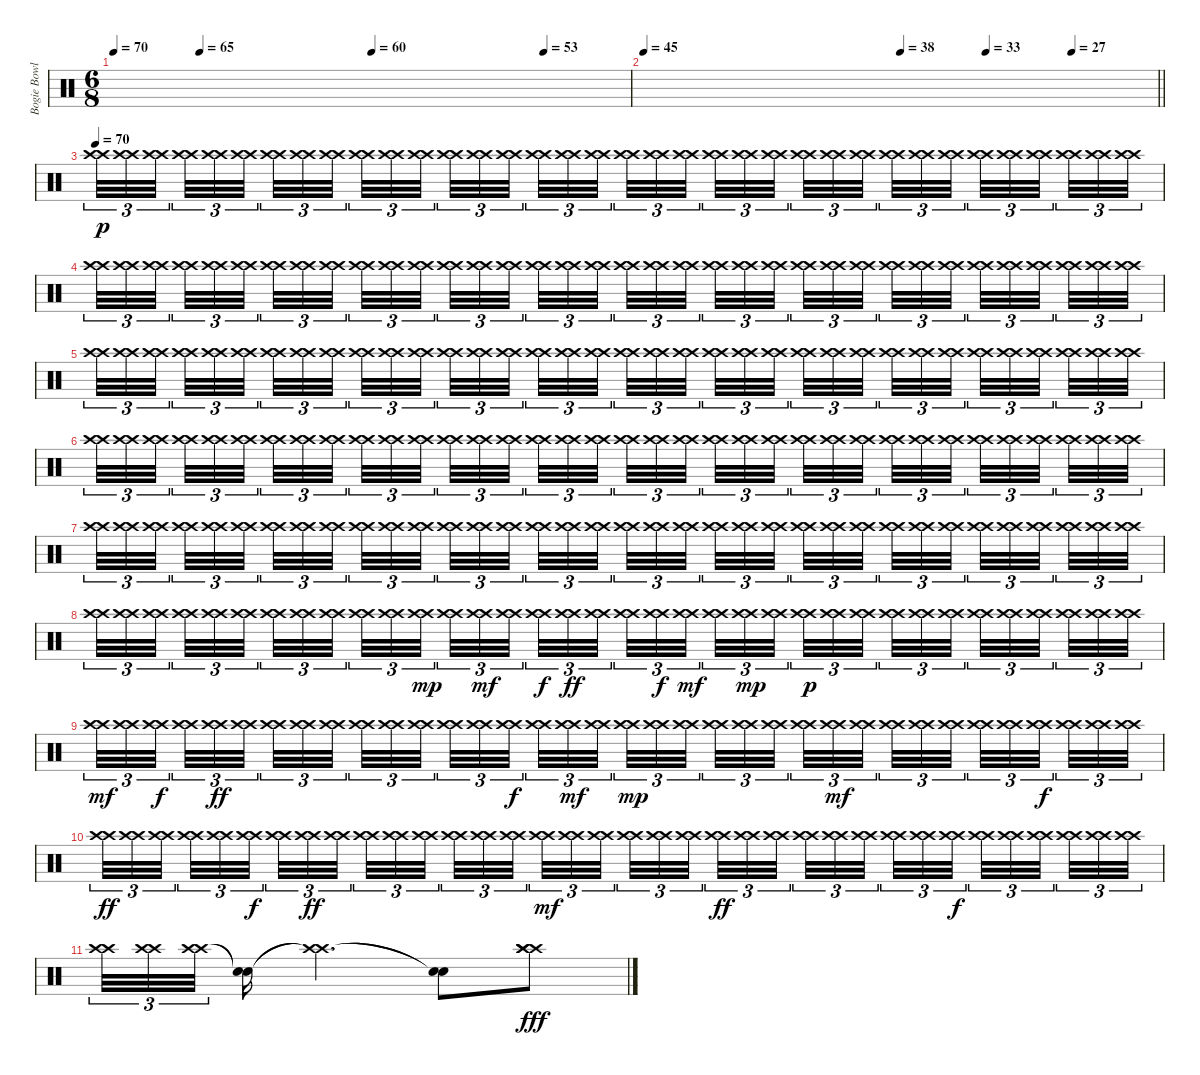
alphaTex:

\track ("Bogie Bowles" "Bogie Bowl") {instrument percussion}
\staff {score}
\articulation defaults
\ts (6 8)
\tempo 70
\tempo (65 0.16666666666666666)
\tempo (60 0.5)
\tempo (53 0.8333333333333334)
\clef neutral
\ks c
|
\tempo 45
\tempo (38 0.5)
\tempo (33 0.6666666666666666)
\tempo (27 0.8333333333333334)
\barLineRight lightlight
|
\tempo 70
("Crash high (hit)" "Crash high (hit)").32{tu (3 2) dy p} ("Crash high (hit)" "Crash high (hit)").32{tu (3 2)} ("Crash high (hit)" "Crash high (hit)").32{tu (3 2) beam splitsecondary} ("Crash high (hit)" "Crash high (hit)").32{tu (3 2)} ("Crash high (hit)" "Crash high (hit)").32{tu (3 2)} ("Crash high (hit)" "Crash high (hit)").32{tu (3 2) beam splitsecondary} ("Crash high (hit)" "Crash high (hit)").32{tu (3 2)} ("Crash high (hit)" "Crash high (hit)").32{tu (3 2)} ("Crash high (hit)" "Crash high (hit)").32{tu (3 2) beam splitsecondary} ("Crash high (hit)" "Crash high (hit)").32{tu (3 2)} ("Crash high (hit)" "Crash high (hit)").32{tu (3 2)} ("Crash high (hit)" "Crash high (hit)").32{tu (3 2) beam splitsecondary} ("Crash high (hit)" "Crash high (hit)").32{tu (3 2)} ("Crash high (hit)" "Crash high (hit)").32{tu (3 2)} ("Crash high (hit)" "Crash high (hit)").32{tu (3 2) beam splitsecondary} ("Crash high (hit)" "Crash high (hit)").32{tu (3 2)} ("Crash high (hit)" "Crash high (hit)").32{tu (3 2)} ("Crash high (hit)" "Crash high (hit)").32{tu (3 2)} ("Crash high (hit)" "Crash high (hit)").32{tu (3 2)} ("Crash high (hit)" "Crash high (hit)").32{tu (3 2)} ("Crash high (hit)" "Crash high (hit)").32{tu (3 2) beam splitsecondary} ("Crash high (hit)" "Crash high (hit)").32{tu (3 2)} ("Crash high (hit)" "Crash high (hit)").32{tu (3 2)} ("Crash high (hit)" "Crash high (hit)").32{tu (3 2) beam splitsecondary} ("Crash high (hit)" "Crash high (hit)").32{tu (3 2)} ("Crash high (hit)" "Crash high (hit)").32{tu (3 2)} ("Crash high (hit)" "Crash high (hit)").32{tu (3 2) beam splitsecondary} ("Crash high (hit)" "Crash high (hit)").32{tu (3 2)} ("Crash high (hit)" "Crash high (hit)").32{tu (3 2)} ("Crash high (hit)" "Crash high (hit)").32{tu (3 2) beam splitsecondary} ("Crash high (hit)" "Crash high (hit)").32{tu (3 2)} ("Crash high (hit)" "Crash high (hit)").32{tu (3 2)} ("Crash high (hit)" "Crash high (hit)").32{tu (3 2) beam splitsecondary} ("Crash high (hit)" "Crash high (hit)").32{tu (3 2)} ("Crash high (hit)" "Crash high (hit)").32{tu (3 2)} ("Crash high (hit)" "Crash high (hit)").32{tu (3 2)} |
("Crash high (hit)" "Crash high (hit)").32{tu (3 2)} ("Crash high (hit)" "Crash high (hit)").32{tu (3 2)} ("Crash high (hit)" "Crash high (hit)").32{tu (3 2) beam splitsecondary} ("Crash high (hit)" "Crash high (hit)").32{tu (3 2)} ("Crash high (hit)" "Crash high (hit)").32{tu (3 2)} ("Crash high (hit)" "Crash high (hit)").32{tu (3 2) beam splitsecondary} ("Crash high (hit)" "Crash high (hit)").32{tu (3 2)} ("Crash high (hit)" "Crash high (hit)").32{tu (3 2)} ("Crash high (hit)" "Crash high (hit)").32{tu (3 2) beam splitsecondary} ("Crash high (hit)" "Crash high (hit)").32{tu (3 2)} ("Crash high (hit)" "Crash high (hit)").32{tu (3 2)} ("Crash high (hit)" "Crash high (hit)").32{tu (3 2) beam splitsecondary} ("Crash high (hit)" "Crash high (hit)").32{tu (3 2)} ("Crash high (hit)" "Crash high (hit)").32{tu (3 2)} ("Crash high (hit)" "Crash high (hit)").32{tu (3 2) beam splitsecondary} ("Crash high (hit)" "Crash high (hit)").32{tu (3 2)} ("Crash high (hit)" "Crash high (hit)").32{tu (3 2)} ("Crash high (hit)" "Crash high (hit)").32{tu (3 2)} ("Crash high (hit)" "Crash high (hit)").32{tu (3 2)} ("Crash high (hit)" "Crash high (hit)").32{tu (3 2)} ("Crash high (hit)" "Crash high (hit)").32{tu (3 2) beam splitsecondary} ("Crash high (hit)" "Crash high (hit)").32{tu (3 2)} ("Crash high (hit)" "Crash high (hit)").32{tu (3 2)} ("Crash high (hit)" "Crash high (hit)").32{tu (3 2) beam splitsecondary} ("Crash high (hit)" "Crash high (hit)").32{tu (3 2)} ("Crash high (hit)" "Crash high (hit)").32{tu (3 2)} ("Crash high (hit)" "Crash high (hit)").32{tu (3 2) beam splitsecondary} ("Crash high (hit)" "Crash high (hit)").32{tu (3 2)} ("Crash high (hit)" "Crash high (hit)").32{tu (3 2)} ("Crash high (hit)" "Crash high (hit)").32{tu (3 2) beam splitsecondary} ("Crash high (hit)" "Crash high (hit)").32{tu (3 2)} ("Crash high (hit)" "Crash high (hit)").32{tu (3 2)} ("Crash high (hit)" "Crash high (hit)").32{tu (3 2) beam splitsecondary} ("Crash high (hit)" "Crash high (hit)").32{tu (3 2)} ("Crash high (hit)" "Crash high (hit)").32{tu (3 2)} ("Crash high (hit)" "Crash high (hit)").32{tu (3 2)} |
("Crash high (hit)" "Crash high (hit)").32{tu (3 2)} ("Crash high (hit)" "Crash high (hit)").32{tu (3 2)} ("Crash high (hit)" "Crash high (hit)").32{tu (3 2) beam splitsecondary} ("Crash high (hit)" "Crash high (hit)").32{tu (3 2)} ("Crash high (hit)" "Crash high (hit)").32{tu (3 2)} ("Crash high (hit)" "Crash high (hit)").32{tu (3 2) beam splitsecondary} ("Crash high (hit)" "Crash high (hit)").32{tu (3 2)} ("Crash high (hit)" "Crash high (hit)").32{tu (3 2)} ("Crash high (hit)" "Crash high (hit)").32{tu (3 2) beam splitsecondary} ("Crash high (hit)" "Crash high (hit)").32{tu (3 2)} ("Crash high (hit)" "Crash high (hit)").32{tu (3 2)} ("Crash high (hit)" "Crash high (hit)").32{tu (3 2) beam splitsecondary} ("Crash high (hit)" "Crash high (hit)").32{tu (3 2)} ("Crash high (hit)" "Crash high (hit)").32{tu (3 2)} ("Crash high (hit)" "Crash high (hit)").32{tu (3 2) beam splitsecondary} ("Crash high (hit)" "Crash high (hit)").32{tu (3 2)} ("Crash high (hit)" "Crash high (hit)").32{tu (3 2)} ("Crash high (hit)" "Crash high (hit)").32{tu (3 2)} ("Crash high (hit)" "Crash high (hit)").32{tu (3 2)} ("Crash high (hit)" "Crash high (hit)").32{tu (3 2)} ("Crash high (hit)" "Crash high (hit)").32{tu (3 2) beam splitsecondary} ("Crash high (hit)" "Crash high (hit)").32{tu (3 2)} ("Crash high (hit)" "Crash high (hit)").32{tu (3 2)} ("Crash high (hit)" "Crash high (hit)").32{tu (3 2) beam splitsecondary} ("Crash high (hit)" "Crash high (hit)").32{tu (3 2)} ("Crash high (hit)" "Crash high (hit)").32{tu (3 2)} ("Crash high (hit)" "Crash high (hit)").32{tu (3 2) beam splitsecondary} ("Crash high (hit)" "Crash high (hit)").32{tu (3 2)} ("Crash high (hit)" "Crash high (hit)").32{tu (3 2)} ("Crash high (hit)" "Crash high (hit)").32{tu (3 2) beam splitsecondary} ("Crash high (hit)" "Crash high (hit)").32{tu (3 2)} ("Crash high (hit)" "Crash high (hit)").32{tu (3 2)} ("Crash high (hit)" "Crash high (hit)").32{tu (3 2) beam splitsecondary} ("Crash high (hit)" "Crash high (hit)").32{tu (3 2)} ("Crash high (hit)" "Crash high (hit)").32{tu (3 2)} ("Crash high (hit)" "Crash high (hit)").32{tu (3 2)} |
("Crash high (hit)" "Crash high (hit)").32{tu (3 2)} ("Crash high (hit)" "Crash high (hit)").32{tu (3 2)} ("Crash high (hit)" "Crash high (hit)").32{tu (3 2) beam splitsecondary} ("Crash high (hit)" "Crash high (hit)").32{tu (3 2)} ("Crash high (hit)" "Crash high (hit)").32{tu (3 2)} ("Crash high (hit)" "Crash high (hit)").32{tu (3 2) beam splitsecondary} ("Crash high (hit)" "Crash high (hit)").32{tu (3 2)} ("Crash high (hit)" "Crash high (hit)").32{tu (3 2)} ("Crash high (hit)" "Crash high (hit)").32{tu (3 2) beam splitsecondary} ("Crash high (hit)" "Crash high (hit)").32{tu (3 2)} ("Crash high (hit)" "Crash high (hit)").32{tu (3 2)} ("Crash high (hit)" "Crash high (hit)").32{tu (3 2) beam splitsecondary} ("Crash high (hit)" "Crash high (hit)").32{tu (3 2)} ("Crash high (hit)" "Crash high (hit)").32{tu (3 2)} ("Crash high (hit)" "Crash high (hit)").32{tu (3 2) beam splitsecondary} ("Crash high (hit)" "Crash high (hit)").32{tu (3 2)} ("Crash high (hit)" "Crash high (hit)").32{tu (3 2)} ("Crash high (hit)" "Crash high (hit)").32{tu (3 2)} ("Crash high (hit)" "Crash high (hit)").32{tu (3 2)} ("Crash high (hit)" "Crash high (hit)").32{tu (3 2)} ("Crash high (hit)" "Crash high (hit)").32{tu (3 2) beam splitsecondary} ("Crash high (hit)" "Crash high (hit)").32{tu (3 2)} ("Crash high (hit)" "Crash high (hit)").32{tu (3 2)} ("Crash high (hit)" "Crash high (hit)").32{tu (3 2) beam splitsecondary} ("Crash high (hit)" "Crash high (hit)").32{tu (3 2)} ("Crash high (hit)" "Crash high (hit)").32{tu (3 2)} ("Crash high (hit)" "Crash high (hit)").32{tu (3 2) beam splitsecondary} ("Crash high (hit)" "Crash high (hit)").32{tu (3 2)} ("Crash high (hit)" "Crash high (hit)").32{tu (3 2)} ("Crash high (hit)" "Crash high (hit)").32{tu (3 2) beam splitsecondary} ("Crash high (hit)" "Crash high (hit)").32{tu (3 2)} ("Crash high (hit)" "Crash high (hit)").32{tu (3 2)} ("Crash high (hit)" "Crash high (hit)").32{tu (3 2) beam splitsecondary} ("Crash high (hit)" "Crash high (hit)").32{tu (3 2)} ("Crash high (hit)" "Crash high (hit)").32{tu (3 2)} ("Crash high (hit)" "Crash high (hit)").32{tu (3 2)} |
("Crash high (hit)" "Crash high (hit)").32{tu (3 2)} ("Crash high (hit)" "Crash high (hit)").32{tu (3 2)} ("Crash high (hit)" "Crash high (hit)").32{tu (3 2) beam splitsecondary} ("Crash high (hit)" "Crash high (hit)").32{tu (3 2)} ("Crash high (hit)" "Crash high (hit)").32{tu (3 2)} ("Crash high (hit)" "Crash high (hit)").32{tu (3 2) beam splitsecondary} ("Crash high (hit)" "Crash high (hit)").32{tu (3 2)} ("Crash high (hit)" "Crash high (hit)").32{tu (3 2)} ("Crash high (hit)" "Crash high (hit)").32{tu (3 2) beam splitsecondary} ("Crash high (hit)" "Crash high (hit)").32{tu (3 2)} ("Crash high (hit)" "Crash high (hit)").32{tu (3 2)} ("Crash high (hit)" "Crash high (hit)").32{tu (3 2) beam splitsecondary} ("Crash high (hit)" "Crash high (hit)").32{tu (3 2)} ("Crash high (hit)" "Crash high (hit)").32{tu (3 2)} ("Crash high (hit)" "Crash high (hit)").32{tu (3 2) beam splitsecondary} ("Crash high (hit)" "Crash high (hit)").32{tu (3 2)} ("Crash high (hit)" "Crash high (hit)").32{tu (3 2)} ("Crash high (hit)" "Crash high (hit)").32{tu (3 2)} ("Crash high (hit)" "Crash high (hit)").32{tu (3 2)} ("Crash high (hit)" "Crash high (hit)").32{tu (3 2)} ("Crash high (hit)" "Crash high (hit)").32{tu (3 2) beam splitsecondary} ("Crash high (hit)" "Crash high (hit)").32{tu (3 2)} ("Crash high (hit)" "Crash high (hit)").32{tu (3 2)} ("Crash high (hit)" "Crash high (hit)").32{tu (3 2) beam splitsecondary} ("Crash high (hit)" "Crash high (hit)").32{tu (3 2)} ("Crash high (hit)" "Crash high (hit)").32{tu (3 2)} ("Crash high (hit)" "Crash high (hit)").32{tu (3 2) beam splitsecondary} ("Crash high (hit)" "Crash high (hit)").32{tu (3 2)} ("Crash high (hit)" "Crash high (hit)").32{tu (3 2)} ("Crash high (hit)" "Crash high (hit)").32{tu (3 2) beam splitsecondary} ("Crash high (hit)" "Crash high (hit)").32{tu (3 2)} ("Crash high (hit)" "Crash high (hit)").32{tu (3 2)} ("Crash high (hit)" "Crash high (hit)").32{tu (3 2) beam splitsecondary} ("Crash high (hit)" "Crash high (hit)").32{tu (3 2)} ("Crash high (hit)" "Crash high (hit)").32{tu (3 2)} ("Crash high (hit)" "Crash high (hit)").32{tu (3 2)} |
("Crash high (hit)" "Crash high (hit)").32{tu (3 2)} ("Crash high (hit)" "Crash high (hit)").32{tu (3 2)} ("Crash high (hit)" "Crash high (hit)").32{tu (3 2) beam splitsecondary} ("Crash high (hit)" "Crash high (hit)").32{tu (3 2)} ("Crash high (hit)" "Crash high (hit)").32{tu (3 2)} ("Crash high (hit)" "Crash high (hit)").32{tu (3 2) beam splitsecondary} ("Crash high (hit)" "Crash high (hit)").32{tu (3 2)} ("Crash high (hit)" "Crash high (hit)").32{tu (3 2)} ("Crash high (hit)" "Crash high (hit)").32{tu (3 2) beam splitsecondary} ("Crash high (hit)" "Crash high (hit)").32{tu (3 2)} ("Crash high (hit)" "Crash high (hit)").32{tu (3 2)} ("Crash high (hit)" "Crash high (hit)").32{tu (3 2) dy mp beam splitsecondary} ("Crash high (hit)" "Crash high (hit)").32{tu (3 2)} ("Crash high (hit)" "Crash high (hit)").32{tu (3 2) dy mf} ("Crash high (hit)" "Crash high (hit)").32{tu (3 2) beam splitsecondary} ("Crash high (hit)" "Crash high (hit)").32{tu (3 2) dy f} ("Crash high (hit)" "Crash high (hit)").32{tu (3 2) dy ff} ("Crash high (hit)" "Crash high (hit)").32{tu (3 2)} ("Crash high (hit)" "Crash high (hit)").32{tu (3 2)} ("Crash high (hit)" "Crash high (hit)").32{tu (3 2) dy f} ("Crash high (hit)" "Crash high (hit)").32{tu (3 2) dy mf beam splitsecondary} ("Crash high (hit)" "Crash high (hit)").32{tu (3 2)} ("Crash high (hit)" "Crash high (hit)").32{tu (3 2) dy mp} ("Crash high (hit)" "Crash high (hit)").32{tu (3 2) beam splitsecondary} ("Crash high (hit)" "Crash high (hit)").32{tu (3 2) dy p} ("Crash high (hit)" "Crash high (hit)").32{tu (3 2)} ("Crash high (hit)" "Crash high (hit)").32{tu (3 2) beam splitsecondary} ("Crash high (hit)" "Crash high (hit)").32{tu (3 2)} ("Crash high (hit)" "Crash high (hit)").32{tu (3 2)} ("Crash high (hit)" "Crash high (hit)").32{tu (3 2) beam splitsecondary} ("Crash high (hit)" "Crash high (hit)").32{tu (3 2)} ("Crash high (hit)" "Crash high (hit)").32{tu (3 2)} ("Crash high (hit)" "Crash high (hit)").32{tu (3 2) beam splitsecondary} ("Crash high (hit)" "Crash high (hit)").32{tu (3 2)} ("Crash high (hit)" "Crash high (hit)").32{tu (3 2)} ("Crash high (hit)" "Crash high (hit)").32{tu (3 2)} |
("Crash high (hit)" "Crash high (hit)").32{tu (3 2) dy mf} ("Crash high (hit)" "Crash high (hit)").32{tu (3 2)} ("Crash high (hit)" "Crash high (hit)").32{tu (3 2) dy f beam splitsecondary} ("Crash high (hit)" "Crash high (hit)").32{tu (3 2)} ("Crash high (hit)" "Crash high (hit)").32{tu (3 2) dy ff} ("Crash high (hit)" "Crash high (hit)").32{tu (3 2) beam splitsecondary} ("Crash high (hit)" "Crash high (hit)").32{tu (3 2)} ("Crash high (hit)" "Crash high (hit)").32{tu (3 2)} ("Crash high (hit)" "Crash high (hit)").32{tu (3 2) beam splitsecondary} ("Crash high (hit)" "Crash high (hit)").32{tu (3 2)} ("Crash high (hit)" "Crash high (hit)").32{tu (3 2)} ("Crash high (hit)" "Crash high (hit)").32{tu (3 2) beam splitsecondary} ("Crash high (hit)" "Crash high (hit)").32{tu (3 2)} ("Crash high (hit)" "Crash high (hit)").32{tu (3 2)} ("Crash high (hit)" "Crash high (hit)").32{tu (3 2) dy f beam splitsecondary} ("Crash high (hit)" "Crash high (hit)").32{tu (3 2)} ("Crash high (hit)" "Crash high (hit)").32{tu (3 2) dy mf} ("Crash high (hit)" "Crash high (hit)").32{tu (3 2)} ("Crash high (hit)" "Crash high (hit)").32{tu (3 2) dy mp} ("Crash high (hit)" "Crash high (hit)").32{tu (3 2)} ("Crash high (hit)" "Crash high (hit)").32{tu (3 2) beam splitsecondary} ("Crash high (hit)" "Crash high (hit)").32{tu (3 2)} ("Crash high (hit)" "Crash high (hit)").32{tu (3 2)} ("Crash high (hit)" "Crash high (hit)").32{tu (3 2) beam splitsecondary} ("Crash high (hit)" "Crash high (hit)").32{tu (3 2)} ("Crash high (hit)" "Crash high (hit)").32{tu (3 2) dy mf} ("Crash high (hit)" "Crash high (hit)").32{tu (3 2) beam splitsecondary} ("Crash high (hit)" "Crash high (hit)").32{tu (3 2)} ("Crash high (hit)" "Crash high (hit)").32{tu (3 2)} ("Crash high (hit)" "Crash high (hit)").32{tu (3 2) beam splitsecondary} ("Crash high (hit)" "Crash high (hit)").32{tu (3 2)} ("Crash high (hit)" "Crash high (hit)").32{tu (3 2)} ("Crash high (hit)" "Crash high (hit)").32{tu (3 2) dy f beam splitsecondary} ("Crash high (hit)" "Crash high (hit)").32{tu (3 2)} ("Crash high (hit)" "Crash high (hit)").32{tu (3 2)} ("Crash high (hit)" "Crash high (hit)").32{tu (3 2)} |
("Crash high (hit)" "Crash high (hit)").32{tu (3 2) dy ff} ("Crash high (hit)" "Crash high (hit)").32{tu (3 2)} ("Crash high (hit)" "Crash high (hit)").32{tu (3 2) beam splitsecondary} ("Crash high (hit)" "Crash high (hit)").32{tu (3 2)} ("Crash high (hit)" "Crash high (hit)").32{tu (3 2)} ("Crash high (hit)" "Crash high (hit)").32{tu (3 2) dy f beam splitsecondary} ("Crash high (hit)" "Crash high (hit)").32{tu (3 2)} ("Crash high (hit)" "Crash high (hit)").32{tu (3 2) dy ff} ("Crash high (hit)" "Crash high (hit)").32{tu (3 2) beam splitsecondary} ("Crash high (hit)" "Crash high (hit)").32{tu (3 2)} ("Crash high (hit)" "Crash high (hit)").32{tu (3 2)} ("Crash high (hit)" "Crash high (hit)").32{tu (3 2) beam splitsecondary} ("Crash high (hit)" "Crash high (hit)").32{tu (3 2)} ("Crash high (hit)" "Crash high (hit)").32{tu (3 2)} ("Crash high (hit)" "Crash high (hit)").32{tu (3 2) beam splitsecondary} ("Crash high (hit)" "Crash high (hit)").32{tu (3 2) dy mf} ("Crash high (hit)" "Crash high (hit)").32{tu (3 2)} ("Crash high (hit)" "Crash high (hit)").32{tu (3 2)} ("Crash high (hit)" "Crash high (hit)").32{tu (3 2)} ("Crash high (hit)" "Crash high (hit)").32{tu (3 2)} ("Crash high (hit)" "Crash high (hit)").32{tu (3 2) beam splitsecondary} ("Crash high (hit)" "Crash high (hit)").32{tu (3 2) dy ff} ("Crash high (hit)" "Crash high (hit)").32{tu (3 2)} ("Crash high (hit)" "Crash high (hit)").32{tu (3 2) beam splitsecondary} ("Crash high (hit)" "Crash high (hit)").32{tu (3 2)} ("Crash high (hit)" "Crash high (hit)").32{tu (3 2)} ("Crash high (hit)" "Crash high (hit)").32{tu (3 2) beam splitsecondary} ("Crash high (hit)" "Crash high (hit)").32{tu (3 2)} ("Crash high (hit)" "Crash high (hit)").32{tu (3 2)} ("Crash high (hit)" "Crash high (hit)").32{tu (3 2) dy f beam splitsecondary} ("Crash high (hit)" "Crash high (hit)").32{tu (3 2)} ("Crash high (hit)" "Crash high (hit)").32{tu (3 2)} ("Crash high (hit)" "Crash high (hit)").32{tu (3 2) beam splitsecondary} ("Crash high (hit)" "Crash high (hit)").32{tu (3 2)} ("Crash high (hit)" "Crash high (hit)").32{tu (3 2)} ("Crash high (hit)" "Crash high (hit)").32{tu (3 2)} |
("Crash high (hit)" "Crash high (hit)").32{tu (3 2)} ("Crash high (hit)" "Crash high (hit)").32{tu (3 2)} ("Crash high (hit)" "Crash high (hit)").32{tu (3 2) beam splitsecondary} ("Snare (hit)"{t} "Snare (hit)"{t}).16 ("Crash high (hit)"{t} "Crash high (hit)"{t}).4{d} ("Snare (hit)"{t} "Snare (hit)"{t}).8 ("Crash high (hit)" "Crash high (hit)" "Crash high (hit)").8{dy fff}
